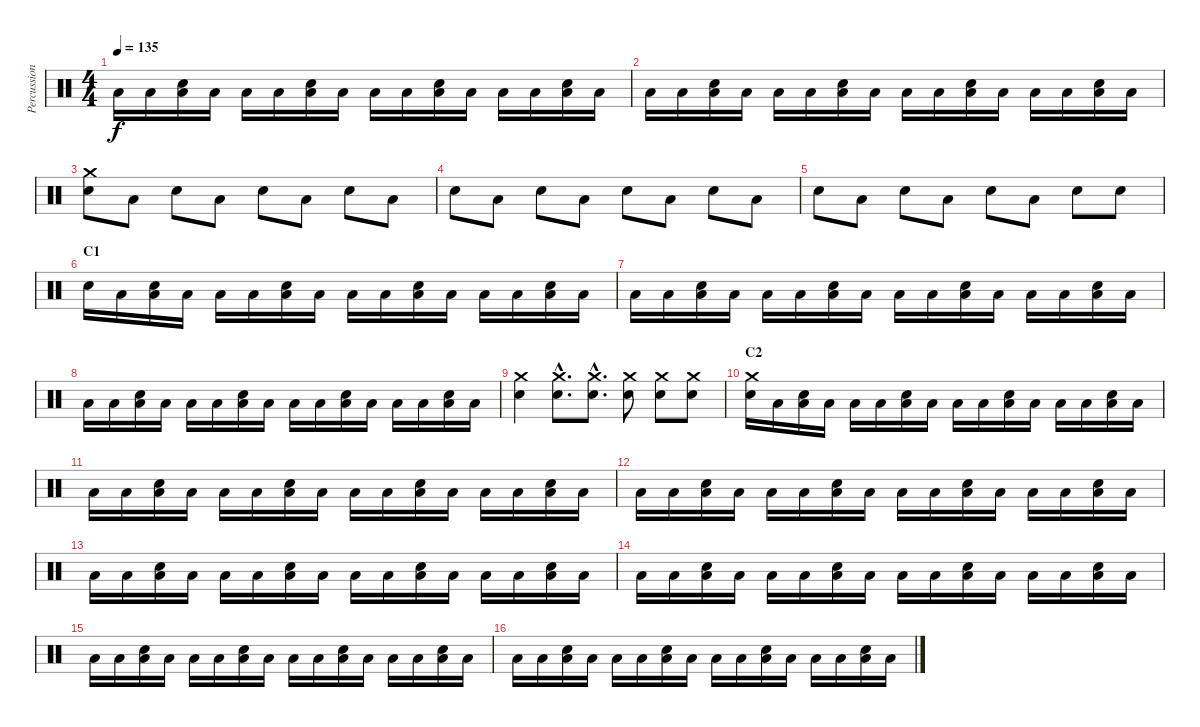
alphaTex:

\track ("Percussion" "Percussion") {instrument percussion}
\staff {score}
\articulation defaults
\ts (4 4)
\tempo 135
\clef neutral
\ks c "Low Floor Tom (hit)".16{dy f} "Low Floor Tom (hit)".16
("Low Floor Tom (hit)" "Electric Snare (hit)").16 "Low Floor Tom (hit)".16 "Low Floor Tom (hit)".16 "Low Floor Tom (hit)".16 ("Low Floor Tom (hit)" "Electric Snare (hit)").16 "Low Floor Tom (hit)".16 "Low Floor Tom (hit)".16 "Low Floor Tom (hit)".16 ("Low Floor Tom (hit)" "Electric Snare (hit)").16 "Low Floor Tom (hit)".16 "Low Floor Tom (hit)".16 "Low Floor Tom (hit)".16 ("Low Floor Tom (hit)" "Electric Snare (hit)").16 "Low Floor Tom (hit)".16 |
"Low Floor Tom (hit)".16 "Low Floor Tom (hit)".16 ("Low Floor Tom (hit)" "Electric Snare (hit)").16 "Low Floor Tom (hit)".16 "Low Floor Tom (hit)".16 "Low Floor Tom (hit)".16 ("Low Floor Tom (hit)" "Electric Snare (hit)").16 "Low Floor Tom (hit)".16 "Low Floor Tom (hit)".16 "Low Floor Tom (hit)".16 ("Low Floor Tom (hit)" "Electric Snare (hit)").16 "Low Floor Tom (hit)".16 "Low Floor Tom (hit)".16 "Low Floor Tom (hit)".16 ("Low Floor Tom (hit)" "Electric Snare (hit)").16 "Low Floor Tom (hit)".16 |
("Electric Snare (hit)" "Crash medium (hit)").8 "Low Floor Tom (hit)".8 "Electric Snare (hit)".8 "Low Floor Tom (hit)".8 "Electric Snare (hit)".8 "Low Floor Tom (hit)".8 "Electric Snare (hit)".8 "Low Floor Tom (hit)".8 |
"Electric Snare (hit)".8 "Low Floor Tom (hit)".8 "Electric Snare (hit)".8 "Low Floor Tom (hit)".8 "Electric Snare (hit)".8 "Low Floor Tom (hit)".8 "Electric Snare (hit)".8 "Low Floor Tom (hit)".8 |
"Electric Snare (hit)".8 "Low Floor Tom (hit)".8 "Electric Snare (hit)".8 "Low Floor Tom (hit)".8 "Electric Snare (hit)".8 "Low Floor Tom (hit)".8 "Electric Snare (hit)".8 "Electric Snare (hit)".8 |
\section ("" "C1")
"Electric Snare (hit)".16 "Low Floor Tom (hit)".16 ("Low Floor Tom (hit)" "Electric Snare (hit)").16 "Low Floor Tom (hit)".16 "Low Floor Tom (hit)".16 "Low Floor Tom (hit)".16 ("Low Floor Tom (hit)" "Electric Snare (hit)").16 "Low Floor Tom (hit)".16 "Low Floor Tom (hit)".16 "Low Floor Tom (hit)".16 ("Low Floor Tom (hit)" "Electric Snare (hit)").16 "Low Floor Tom (hit)".16 "Low Floor Tom (hit)".16 "Low Floor Tom (hit)".16 ("Low Floor Tom (hit)" "Electric Snare (hit)").16 "Low Floor Tom (hit)".16 |
"Low Floor Tom (hit)".16 "Low Floor Tom (hit)".16 ("Low Floor Tom (hit)" "Electric Snare (hit)").16 "Low Floor Tom (hit)".16 "Low Floor Tom (hit)".16 "Low Floor Tom (hit)".16 ("Low Floor Tom (hit)" "Electric Snare (hit)").16 "Low Floor Tom (hit)".16 "Low Floor Tom (hit)".16 "Low Floor Tom (hit)".16 ("Low Floor Tom (hit)" "Electric Snare (hit)").16 "Low Floor Tom (hit)".16 "Low Floor Tom (hit)".16 "Low Floor Tom (hit)".16 ("Low Floor Tom (hit)" "Electric Snare (hit)").16 "Low Floor Tom (hit)".16 |
"Low Floor Tom (hit)".16 "Low Floor Tom (hit)".16 ("Low Floor Tom (hit)" "Electric Snare (hit)").16 "Low Floor Tom (hit)".16 "Low Floor Tom (hit)".16 "Low Floor Tom (hit)".16 ("Low Floor Tom (hit)" "Electric Snare (hit)").16 "Low Floor Tom (hit)".16 "Low Floor Tom (hit)".16 "Low Floor Tom (hit)".16 ("Low Floor Tom (hit)" "Electric Snare (hit)").16 "Low Floor Tom (hit)".16 "Low Floor Tom (hit)".16 "Low Floor Tom (hit)".16 ("Low Floor Tom (hit)" "Electric Snare (hit)").16 "Low Floor Tom (hit)".16 |
("Electric Snare (hit)" "Crash medium (hit)").4 ("Electric Snare (hit)"{hac} "Crash medium (hit)"{hac}).8{d} ("Electric Snare (hit)"{hac} "Crash medium (hit)"{hac}).8{d} ("Electric Snare (hit)" "Crash medium (hit)").8 ("Electric Snare (hit)" "Crash medium (hit)").8 ("Electric Snare (hit)" "Crash medium (hit)").8 |
\section ("" "C2")
("Electric Snare (hit)" "Crash medium (hit)").16 "Low Floor Tom (hit)".16 ("Low Floor Tom (hit)" "Electric Snare (hit)").16 "Low Floor Tom (hit)".16 "Low Floor Tom (hit)".16 "Low Floor Tom (hit)".16 ("Low Floor Tom (hit)" "Electric Snare (hit)").16 "Low Floor Tom (hit)".16 "Low Floor Tom (hit)".16 "Low Floor Tom (hit)".16 ("Low Floor Tom (hit)" "Electric Snare (hit)").16 "Low Floor Tom (hit)".16 "Low Floor Tom (hit)".16 "Low Floor Tom (hit)".16 ("Low Floor Tom (hit)" "Electric Snare (hit)").16 "Low Floor Tom (hit)".16 |
"Low Floor Tom (hit)".16 "Low Floor Tom (hit)".16 ("Low Floor Tom (hit)" "Electric Snare (hit)").16 "Low Floor Tom (hit)".16 "Low Floor Tom (hit)".16 "Low Floor Tom (hit)".16 ("Low Floor Tom (hit)" "Electric Snare (hit)").16 "Low Floor Tom (hit)".16 "Low Floor Tom (hit)".16 "Low Floor Tom (hit)".16 ("Low Floor Tom (hit)" "Electric Snare (hit)").16 "Low Floor Tom (hit)".16 "Low Floor Tom (hit)".16 "Low Floor Tom (hit)".16 ("Low Floor Tom (hit)" "Electric Snare (hit)").16 "Low Floor Tom (hit)".16 |
"Low Floor Tom (hit)".16 "Low Floor Tom (hit)".16 ("Low Floor Tom (hit)" "Electric Snare (hit)").16 "Low Floor Tom (hit)".16 "Low Floor Tom (hit)".16 "Low Floor Tom (hit)".16 ("Low Floor Tom (hit)" "Electric Snare (hit)").16 "Low Floor Tom (hit)".16 "Low Floor Tom (hit)".16 "Low Floor Tom (hit)".16 ("Low Floor Tom (hit)" "Electric Snare (hit)").16 "Low Floor Tom (hit)".16 "Low Floor Tom (hit)".16 "Low Floor Tom (hit)".16 ("Low Floor Tom (hit)" "Electric Snare (hit)").16 "Low Floor Tom (hit)".16 |
"Low Floor Tom (hit)".16 "Low Floor Tom (hit)".16 ("Low Floor Tom (hit)" "Electric Snare (hit)").16 "Low Floor Tom (hit)".16 "Low Floor Tom (hit)".16 "Low Floor Tom (hit)".16 ("Low Floor Tom (hit)" "Electric Snare (hit)").16 "Low Floor Tom (hit)".16 "Low Floor Tom (hit)".16 "Low Floor Tom (hit)".16 ("Low Floor Tom (hit)" "Electric Snare (hit)").16 "Low Floor Tom (hit)".16 "Low Floor Tom (hit)".16 "Low Floor Tom (hit)".16 ("Low Floor Tom (hit)" "Electric Snare (hit)").16 "Low Floor Tom (hit)".16 |
"Low Floor Tom (hit)".16 "Low Floor Tom (hit)".16 ("Low Floor Tom (hit)" "Electric Snare (hit)").16 "Low Floor Tom (hit)".16 "Low Floor Tom (hit)".16 "Low Floor Tom (hit)".16 ("Low Floor Tom (hit)" "Electric Snare (hit)").16 "Low Floor Tom (hit)".16 "Low Floor Tom (hit)".16 "Low Floor Tom (hit)".16 ("Low Floor Tom (hit)" "Electric Snare (hit)").16 "Low Floor Tom (hit)".16 "Low Floor Tom (hit)".16 "Low Floor Tom (hit)".16 ("Low Floor Tom (hit)" "Electric Snare (hit)").16 "Low Floor Tom (hit)".16 |
"Low Floor Tom (hit)".16 "Low Floor Tom (hit)".16 ("Low Floor Tom (hit)" "Electric Snare (hit)").16 "Low Floor Tom (hit)".16 "Low Floor Tom (hit)".16 "Low Floor Tom (hit)".16 ("Low Floor Tom (hit)" "Electric Snare (hit)").16 "Low Floor Tom (hit)".16 "Low Floor Tom (hit)".16 "Low Floor Tom (hit)".16 ("Low Floor Tom (hit)" "Electric Snare (hit)").16 "Low Floor Tom (hit)".16 "Low Floor Tom (hit)".16 "Low Floor Tom (hit)".16 ("Low Floor Tom (hit)" "Electric Snare (hit)").16 "Low Floor Tom (hit)".16 |
"Low Floor Tom (hit)".16 "Low Floor Tom (hit)".16 ("Low Floor Tom (hit)" "Electric Snare (hit)").16 "Low Floor Tom (hit)".16 "Low Floor Tom (hit)".16 "Low Floor Tom (hit)".16 ("Low Floor Tom (hit)" "Electric Snare (hit)").16 "Low Floor Tom (hit)".16 "Low Floor Tom (hit)".16 "Low Floor Tom (hit)".16 ("Low Floor Tom (hit)" "Electric Snare (hit)").16 "Low Floor Tom (hit)".16 "Low Floor Tom (hit)".16 "Low Floor Tom (hit)".16 ("Low Floor Tom (hit)" "Electric Snare (hit)").16 "Low Floor Tom (hit)".16
